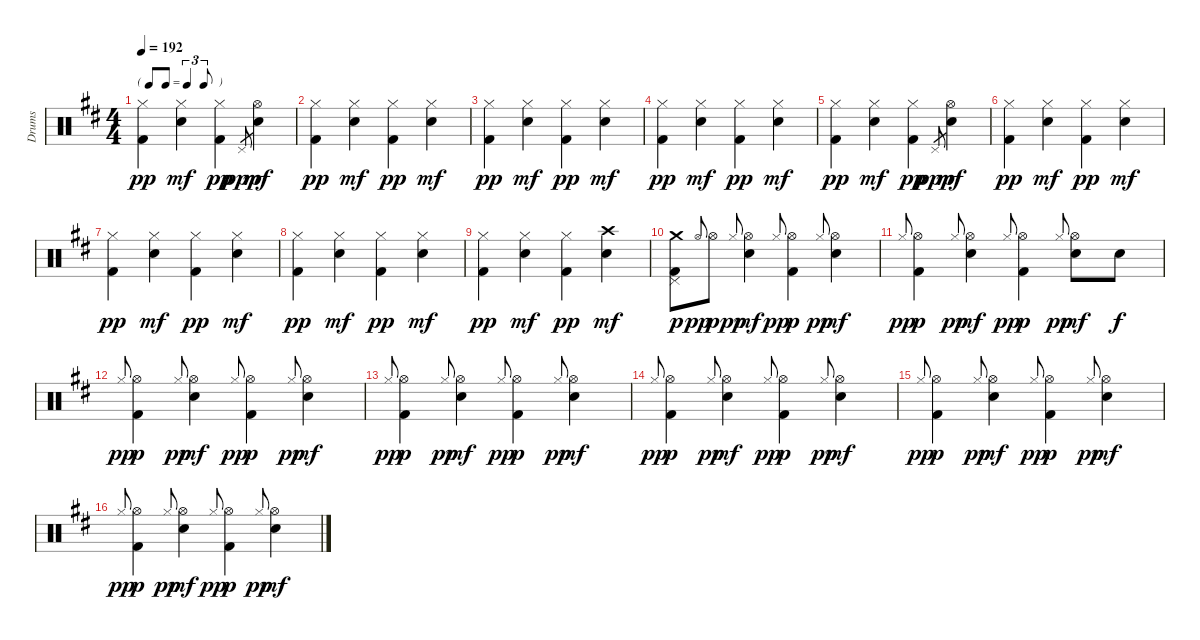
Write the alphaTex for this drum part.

\track ("Drums" "Drums") {instrument percussion}
\staff {score}
\articulation defaults
\ts (4 4)
\tf triplet8th
\tempo 192
\clef neutral
\ks bminor
("Hi-Hat (closed)" "Kick (hit) 2").4{dy pp} ("Hi-Hat (closed)" "Snare (hit) 2").4{dy mf} ("Hi-Hat (closed)" "Kick (hit) 2").4{dy pp} "Pedal Hi-Hat (hit)".8{gr dy ppp} ("Hi-Hat (open)" "Snare (hit) 2").4{dy mf} |
("Hi-Hat (closed)" "Kick (hit) 2").4{dy pp} ("Hi-Hat (closed)" "Snare (hit) 2").4{dy mf} ("Hi-Hat (closed)" "Kick (hit) 2").4{dy pp} ("Hi-Hat (closed)" "Snare (hit) 2").4{dy mf} |
("Hi-Hat (closed)" "Kick (hit) 2").4{dy pp} ("Hi-Hat (closed)" "Snare (hit) 2").4{dy mf} ("Hi-Hat (closed)" "Kick (hit) 2").4{dy pp} ("Hi-Hat (closed)" "Snare (hit) 2").4{dy mf} |
("Hi-Hat (closed)" "Kick (hit) 2").4{dy pp} ("Hi-Hat (closed)" "Snare (hit) 2").4{dy mf} ("Hi-Hat (closed)" "Kick (hit) 2").4{dy pp} ("Hi-Hat (closed)" "Snare (hit) 2").4{dy mf} |
("Hi-Hat (closed)" "Kick (hit) 2").4{dy pp} ("Hi-Hat (closed)" "Snare (hit) 2").4{dy mf} ("Hi-Hat (closed)" "Kick (hit) 2").4{dy pp} "Pedal Hi-Hat (hit)".8{gr dy ppp} ("Hi-Hat (open)" "Snare (hit) 2").4{dy mf} |
("Hi-Hat (closed)" "Kick (hit) 2").4{dy pp} ("Hi-Hat (closed)" "Snare (hit) 2").4{dy mf} ("Hi-Hat (closed)" "Kick (hit) 2").4{dy pp} ("Hi-Hat (closed)" "Snare (hit) 2").4{dy mf} |
("Hi-Hat (closed)" "Kick (hit) 2").4{dy pp} ("Hi-Hat (closed)" "Snare (hit) 2").4{dy mf} ("Hi-Hat (closed)" "Kick (hit) 2").4{dy pp} ("Hi-Hat (closed)" "Snare (hit) 2").4{dy mf} |
("Hi-Hat (closed)" "Kick (hit) 2").4{dy pp} ("Hi-Hat (closed)" "Snare (hit) 2").4{dy mf} ("Hi-Hat (closed)" "Kick (hit) 2").4{dy pp} ("Hi-Hat (closed)" "Snare (hit) 2").4{dy mf} |
("Hi-Hat (closed)" "Kick (hit) 2").4{dy pp} ("Hi-Hat (closed)" "Snare (hit) 2").4{dy mf} ("Hi-Hat (closed)" "Kick (hit) 2").4{dy pp} ("Crash high (hit)" "Snare (hit) 2").4{dy mf} |
("Crash medium (hit)" "Pedal Hi-Hat (hit)" "Kick (hit) 2").8{dy p} "Hi-Hat (open)".8{gr onbeat dy pp} "Hi-Hat (open)".8{dy p} "Hi-Hat (closed)".8{gr onbeat dy pp} ("Hi-Hat (open)" "Snare (hit) 2").4{dy mf} "Hi-Hat (closed)".8{gr onbeat dy pp} ("Hi-Hat (open)" "Kick (hit) 2").4{dy p} "Hi-Hat (closed)".8{gr onbeat dy pp} ("Hi-Hat (open)" "Snare (hit) 2").4{dy mf} |
"Hi-Hat (closed)".8{gr onbeat dy pp} ("Hi-Hat (open)" "Kick (hit) 2").4{dy p} "Hi-Hat (closed)".8{gr onbeat dy pp} ("Hi-Hat (open)" "Snare (hit) 2").4{dy mf} "Hi-Hat (closed)".8{gr onbeat dy pp} ("Hi-Hat (open)" "Kick (hit) 2").4{dy p} "Hi-Hat (closed)".8{gr onbeat dy pp} ("Hi-Hat (open)" "Snare (hit) 2").8{dy mf} "Snare (hit) 2".8{dy f} |
"Hi-Hat (closed)".8{gr onbeat dy pp} ("Hi-Hat (open)" "Kick (hit) 2").4{dy p} "Hi-Hat (closed)".8{gr onbeat dy pp} ("Hi-Hat (open)" "Snare (hit) 2").4{dy mf} "Hi-Hat (closed)".8{gr onbeat dy pp} ("Hi-Hat (open)" "Kick (hit) 2").4{dy p} "Hi-Hat (closed)".8{gr onbeat dy pp} ("Hi-Hat (open)" "Snare (hit) 2").4{dy mf} |
"Hi-Hat (closed)".8{gr onbeat dy pp} ("Hi-Hat (open)" "Kick (hit) 2").4{dy p} "Hi-Hat (closed)".8{gr onbeat dy pp} ("Hi-Hat (open)" "Snare (hit) 2").4{dy mf} "Hi-Hat (closed)".8{gr onbeat dy pp} ("Hi-Hat (open)" "Kick (hit) 2").4{dy p} "Hi-Hat (closed)".8{gr onbeat dy pp} ("Hi-Hat (open)" "Snare (hit) 2").4{dy mf} |
"Hi-Hat (closed)".8{gr onbeat dy pp} ("Hi-Hat (open)" "Kick (hit) 2").4{dy p} "Hi-Hat (closed)".8{gr onbeat dy pp} ("Hi-Hat (open)" "Snare (hit) 2").4{dy mf} "Hi-Hat (closed)".8{gr onbeat dy pp} ("Hi-Hat (open)" "Kick (hit) 2").4{dy p} "Hi-Hat (closed)".8{gr onbeat dy pp} ("Hi-Hat (open)" "Snare (hit) 2").4{dy mf} |
"Hi-Hat (closed)".8{gr onbeat dy pp} ("Hi-Hat (open)" "Kick (hit) 2").4{dy p} "Hi-Hat (closed)".8{gr onbeat dy pp} ("Hi-Hat (open)" "Snare (hit) 2").4{dy mf} "Hi-Hat (closed)".8{gr onbeat dy pp} ("Hi-Hat (open)" "Kick (hit) 2").4{dy p} "Hi-Hat (closed)".8{gr onbeat dy pp} ("Hi-Hat (open)" "Snare (hit) 2").4{dy mf} |
"Hi-Hat (closed)".8{gr onbeat dy pp} ("Hi-Hat (open)" "Kick (hit) 2").4{dy p} "Hi-Hat (closed)".8{gr onbeat dy pp} ("Hi-Hat (open)" "Snare (hit) 2").4{dy mf} "Hi-Hat (closed)".8{gr onbeat dy pp} ("Hi-Hat (open)" "Kick (hit) 2").4{dy p} "Hi-Hat (closed)".8{gr onbeat dy pp} ("Hi-Hat (open)" "Snare (hit) 2").4{dy mf}
